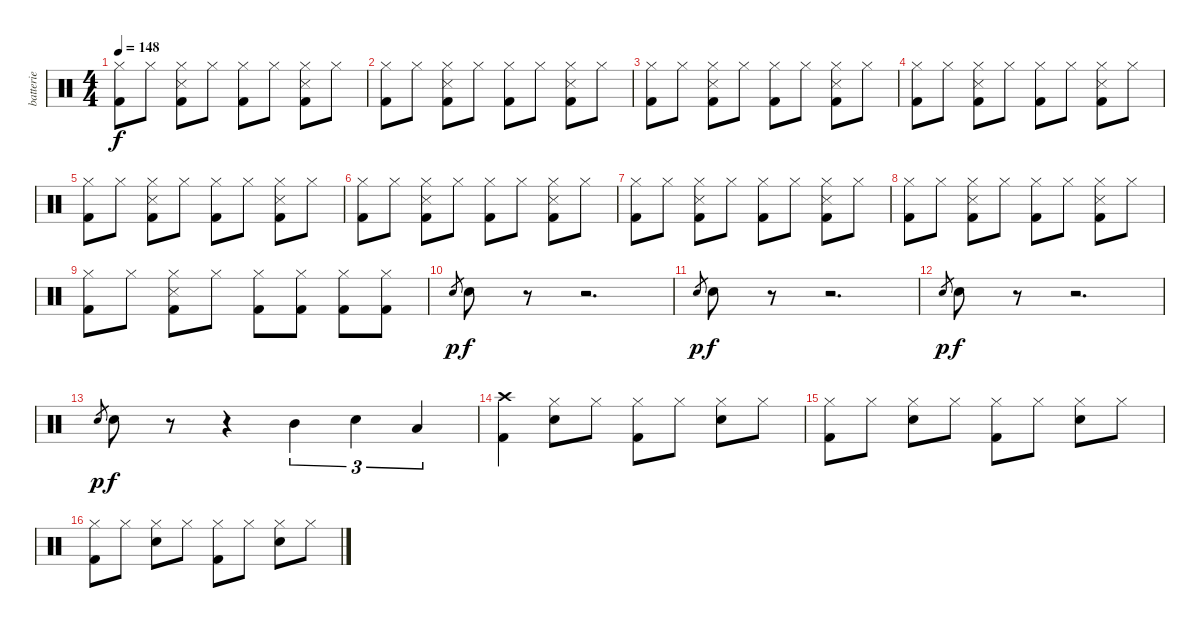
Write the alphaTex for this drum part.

\track ("batterie" "batterie") {instrument percussion}
\staff {score}
\articulation defaults
\ts (4 4)
\tempo 148
\clef neutral
\ks c
("Hi-Hat (closed)" "Kick (hit) 2").8{dy f} "Hi-Hat (closed)".8 ("Hi-Hat (closed)" "Snare (side stick) 3" "Kick (hit) 2").8 "Hi-Hat (closed)".8 ("Hi-Hat (closed)" "Kick (hit) 2").8 "Hi-Hat (closed)".8 ("Hi-Hat (closed)" "Snare (side stick) 3" "Kick (hit) 2").8 "Hi-Hat (closed)".8 |
("Hi-Hat (closed)" "Kick (hit) 2").8 "Hi-Hat (closed)".8 ("Hi-Hat (closed)" "Snare (side stick) 3" "Kick (hit) 2").8 "Hi-Hat (closed)".8 ("Hi-Hat (closed)" "Kick (hit) 2").8 "Hi-Hat (closed)".8 ("Hi-Hat (closed)" "Snare (side stick) 3" "Kick (hit) 2").8 "Hi-Hat (closed)".8 |
("Hi-Hat (closed)" "Kick (hit) 2").8 "Hi-Hat (closed)".8 ("Hi-Hat (closed)" "Snare (side stick) 3" "Kick (hit) 2").8 "Hi-Hat (closed)".8 ("Hi-Hat (closed)" "Kick (hit) 2").8 "Hi-Hat (closed)".8 ("Hi-Hat (closed)" "Snare (side stick) 3" "Kick (hit) 2").8 "Hi-Hat (closed)".8 |
("Hi-Hat (closed)" "Kick (hit) 2").8 "Hi-Hat (closed)".8 ("Hi-Hat (closed)" "Snare (side stick) 3" "Kick (hit) 2").8 "Hi-Hat (closed)".8 ("Hi-Hat (closed)" "Kick (hit) 2").8 "Hi-Hat (closed)".8 ("Hi-Hat (closed)" "Snare (side stick) 3" "Kick (hit) 2").8 "Hi-Hat (closed)".8 |
("Hi-Hat (closed)" "Kick (hit) 2").8 "Hi-Hat (closed)".8 ("Hi-Hat (closed)" "Snare (side stick) 3" "Kick (hit) 2").8 "Hi-Hat (closed)".8 ("Hi-Hat (closed)" "Kick (hit) 2").8 "Hi-Hat (closed)".8 ("Hi-Hat (closed)" "Snare (side stick) 3" "Kick (hit) 2").8 "Hi-Hat (closed)".8 |
("Hi-Hat (closed)" "Kick (hit) 2").8 "Hi-Hat (closed)".8 ("Hi-Hat (closed)" "Snare (side stick) 3" "Kick (hit) 2").8 "Hi-Hat (closed)".8 ("Hi-Hat (closed)" "Kick (hit) 2").8 "Hi-Hat (closed)".8 ("Hi-Hat (closed)" "Snare (side stick) 3" "Kick (hit) 2").8 "Hi-Hat (closed)".8 |
("Hi-Hat (closed)" "Kick (hit) 2").8 "Hi-Hat (closed)".8 ("Hi-Hat (closed)" "Snare (side stick) 3" "Kick (hit) 2").8 "Hi-Hat (closed)".8 ("Hi-Hat (closed)" "Kick (hit) 2").8 "Hi-Hat (closed)".8 ("Hi-Hat (closed)" "Snare (side stick) 3" "Kick (hit) 2").8 "Hi-Hat (closed)".8 |
("Hi-Hat (closed)" "Kick (hit) 2").8 "Hi-Hat (closed)".8 ("Hi-Hat (closed)" "Snare (side stick) 3" "Kick (hit) 2").8 "Hi-Hat (closed)".8 ("Hi-Hat (closed)" "Kick (hit) 2").8 "Hi-Hat (closed)".8 ("Hi-Hat (closed)" "Snare (side stick) 3" "Kick (hit) 2").8 "Hi-Hat (closed)".8 |
("Hi-Hat (closed)" "Kick (hit) 2").8 "Hi-Hat (closed)".8 ("Hi-Hat (closed)" "Snare (side stick) 3" "Kick (hit) 2").8 "Hi-Hat (closed)".8 ("Hi-Hat (closed)" "Kick (hit) 2").8 ("Hi-Hat (closed)" "Kick (hit) 2").8 ("Hi-Hat (closed)" "Kick (hit) 2").8 ("Hi-Hat (closed)" "Kick (hit) 2").8 |
"Snare (hit) 2".8{gr dy p} "Snare (hit) 2".8{dy f} r.8 r.2{d} |
"Snare (hit) 2".8{gr dy p} "Snare (hit) 2".8{dy f} r.8 r.2{d} |
"Snare (hit) 2".8{gr dy p} "Snare (hit) 2".8{dy f} r.8 r.2{d} |
"Snare (hit) 2".8{gr dy p} "Snare (hit) 2".8{dy f} r.8 r.4 "Mid Tom (hit)".4{tu (3 2)} "Snare (hit) 2".4{tu (3 2)} "Low Tom (hit)".4{tu (3 2)} |
("Crash high (hit)" "Kick (hit) 2").4 ("Hi-Hat (closed)" "Snare (hit) 2").8 "Hi-Hat (closed)".8 ("Hi-Hat (closed)" "Kick (hit) 2").8 "Hi-Hat (closed)".8 ("Hi-Hat (closed)" "Snare (hit) 2").8 "Hi-Hat (closed)".8 |
("Hi-Hat (closed)" "Kick (hit) 2").8 "Hi-Hat (closed)".8 ("Hi-Hat (closed)" "Snare (hit) 2").8 "Hi-Hat (closed)".8 ("Hi-Hat (closed)" "Kick (hit) 2").8 "Hi-Hat (closed)".8 ("Hi-Hat (closed)" "Snare (hit) 2").8 "Hi-Hat (closed)".8 |
("Hi-Hat (closed)" "Kick (hit) 2").8 "Hi-Hat (closed)".8 ("Hi-Hat (closed)" "Snare (hit) 2").8 "Hi-Hat (closed)".8 ("Hi-Hat (closed)" "Kick (hit) 2").8 "Hi-Hat (closed)".8 ("Hi-Hat (closed)" "Snare (hit) 2").8 "Hi-Hat (closed)".8
